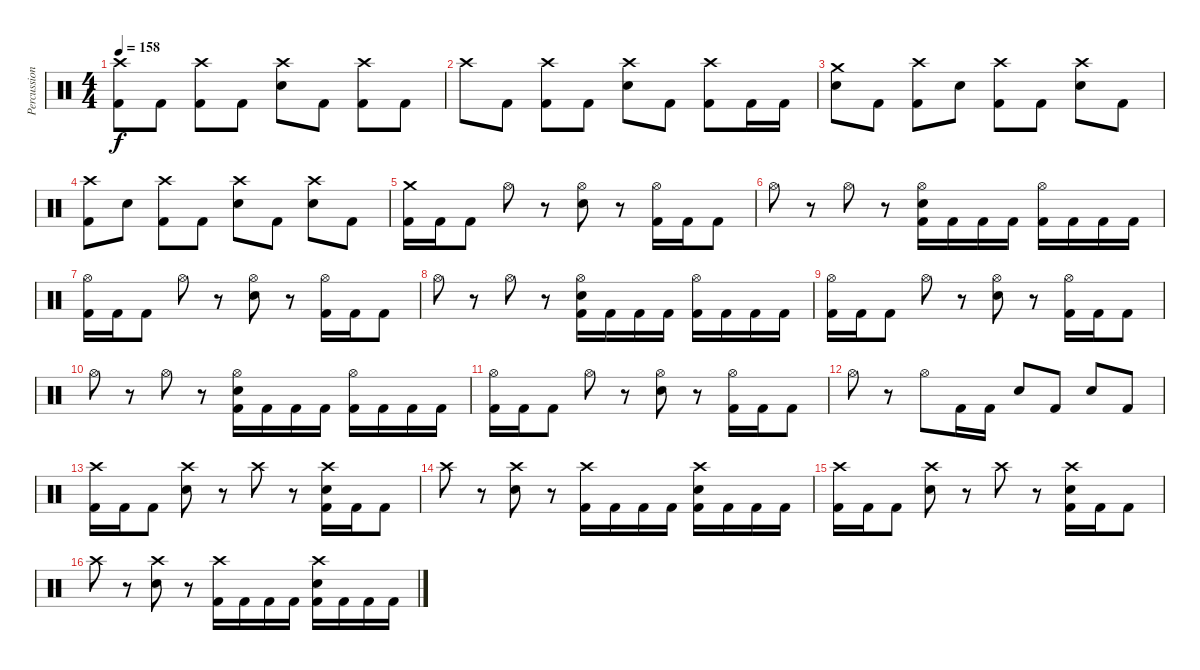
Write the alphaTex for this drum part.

\track ("Percussion" "Percussion") {instrument percussion}
\staff {score}
\articulation defaults
\ts (4 4)
\tempo 158
\clef neutral
\ks c
("Crash high (hit)" "Kick (hit) 2").8{dy f} "Kick (hit) 2".8 ("Crash high (hit)" "Kick (hit) 2").8 "Kick (hit) 2".8 ("Crash high (hit)" "Snare (hit) 2").8 "Kick (hit) 2".8 ("Crash high (hit)" "Kick (hit) 2").8 "Kick (hit) 2".8 |
"Crash high (hit)".8 "Kick (hit) 2".8 ("Crash high (hit)" "Kick (hit) 2").8 "Kick (hit) 2".8 ("Crash high (hit)" "Snare (hit) 2").8 "Kick (hit) 2".8 ("Crash high (hit)" "Kick (hit) 2").8 "Kick (hit) 2".16 "Kick (hit) 2".16 |
("Crash medium (hit)" "Snare (hit) 2").8 "Kick (hit) 2".8 ("Crash high (hit)" "Kick (hit) 2").8 "Snare (hit) 2".8 ("Crash high (hit)" "Kick (hit) 2").8 "Kick (hit) 2".8 ("Crash high (hit)" "Snare (hit) 2").8 "Kick (hit) 2".8 |
("Crash high (hit)" "Kick (hit) 2").8 "Snare (hit) 2".8 ("Crash high (hit)" "Kick (hit) 2").8 "Kick (hit) 2".8 ("Crash high (hit)" "Snare (hit) 2").8 "Kick (hit) 2".8 ("Crash high (hit)" "Snare (hit) 2").8 "Kick (hit) 2".8 |
("Crash medium (hit)" "Kick (hit) 2").16 "Kick (hit) 2".16 "Kick (hit) 2".8 "Hi-Hat (open)".8 r.8 ("Hi-Hat (open)" "Snare (hit) 2").8 r.8 ("Hi-Hat (open)" "Kick (hit) 2").16 "Kick (hit) 2".16 "Kick (hit) 2".8 |
"Hi-Hat (open)".8 r.8 "Hi-Hat (open)".8 r.8 ("Hi-Hat (open)" "Snare (hit) 2" "Kick (hit) 2").16 "Kick (hit) 2".16 "Kick (hit) 2".16 "Kick (hit) 2".16 ("Hi-Hat (open)" "Kick (hit) 2").16 "Kick (hit) 2".16 "Kick (hit) 2".16 "Kick (hit) 2".16 |
("Hi-Hat (open)" "Kick (hit) 2").16 "Kick (hit) 2".16 "Kick (hit) 2".8 "Hi-Hat (open)".8 r.8 ("Hi-Hat (open)" "Snare (hit) 2").8 r.8 ("Hi-Hat (open)" "Kick (hit) 2").16 "Kick (hit) 2".16 "Kick (hit) 2".8 |
"Hi-Hat (open)".8 r.8 "Hi-Hat (open)".8 r.8 ("Hi-Hat (open)" "Snare (hit) 2" "Kick (hit) 2").16 "Kick (hit) 2".16 "Kick (hit) 2".16 "Kick (hit) 2".16 ("Hi-Hat (open)" "Kick (hit) 2").16 "Kick (hit) 2".16 "Kick (hit) 2".16 "Kick (hit) 2".16 |
("Hi-Hat (open)" "Kick (hit) 2").16 "Kick (hit) 2".16 "Kick (hit) 2".8 "Hi-Hat (open)".8 r.8 ("Hi-Hat (open)" "Snare (hit) 2").8 r.8 ("Hi-Hat (open)" "Kick (hit) 2").16 "Kick (hit) 2".16 "Kick (hit) 2".8 |
"Hi-Hat (open)".8 r.8 "Hi-Hat (open)".8 r.8 ("Hi-Hat (open)" "Snare (hit) 2" "Kick (hit) 2").16 "Kick (hit) 2".16 "Kick (hit) 2".16 "Kick (hit) 2".16 ("Hi-Hat (open)" "Kick (hit) 2").16 "Kick (hit) 2".16 "Kick (hit) 2".16 "Kick (hit) 2".16 |
("Hi-Hat (open)" "Kick (hit) 2").16 "Kick (hit) 2".16 "Kick (hit) 2".8 "Hi-Hat (open)".8 r.8 ("Hi-Hat (open)" "Snare (hit) 2").8 r.8 ("Hi-Hat (open)" "Kick (hit) 2").16 "Kick (hit) 2".16 "Kick (hit) 2".8 |
"Hi-Hat (open)".8 r.8 "Hi-Hat (open)".8 "Kick (hit) 2".16 "Kick (hit) 2".16 "Snare (hit) 2".8 "Kick (hit) 2".8 "Snare (hit) 2".8 "Kick (hit) 2".8 |
("Crash high (hit)" "Kick (hit) 2").16 "Kick (hit) 2".16 "Kick (hit) 2".8 ("Crash high (hit)" "Snare (hit) 2").8 r.8 "Crash high (hit)".8 r.8 ("Crash high (hit)" "Snare (hit) 2" "Kick (hit) 2").16 "Kick (hit) 2".16 "Kick (hit) 2".8 |
"Crash high (hit)".8 r.8 ("Crash high (hit)" "Snare (hit) 2").8 r.8 ("Crash high (hit)" "Kick (hit) 2").16 "Kick (hit) 2".16 "Kick (hit) 2".16 "Kick (hit) 2".16 ("Crash high (hit)" "Snare (hit) 2" "Kick (hit) 2").16 "Kick (hit) 2".16 "Kick (hit) 2".16 "Kick (hit) 2".16 |
("Crash high (hit)" "Kick (hit) 2").16 "Kick (hit) 2".16 "Kick (hit) 2".8 ("Crash high (hit)" "Snare (hit) 2").8 r.8 "Crash high (hit)".8 r.8 ("Crash high (hit)" "Snare (hit) 2" "Kick (hit) 2").16 "Kick (hit) 2".16 "Kick (hit) 2".8 |
"Crash high (hit)".8 r.8 ("Crash high (hit)" "Snare (hit) 2").8 r.8 ("Crash high (hit)" "Kick (hit) 2").16 "Kick (hit) 2".16 "Kick (hit) 2".16 "Kick (hit) 2".16 ("Crash high (hit)" "Snare (hit) 2" "Kick (hit) 2").16 "Kick (hit) 2".16 "Kick (hit) 2".16 "Kick (hit) 2".16
